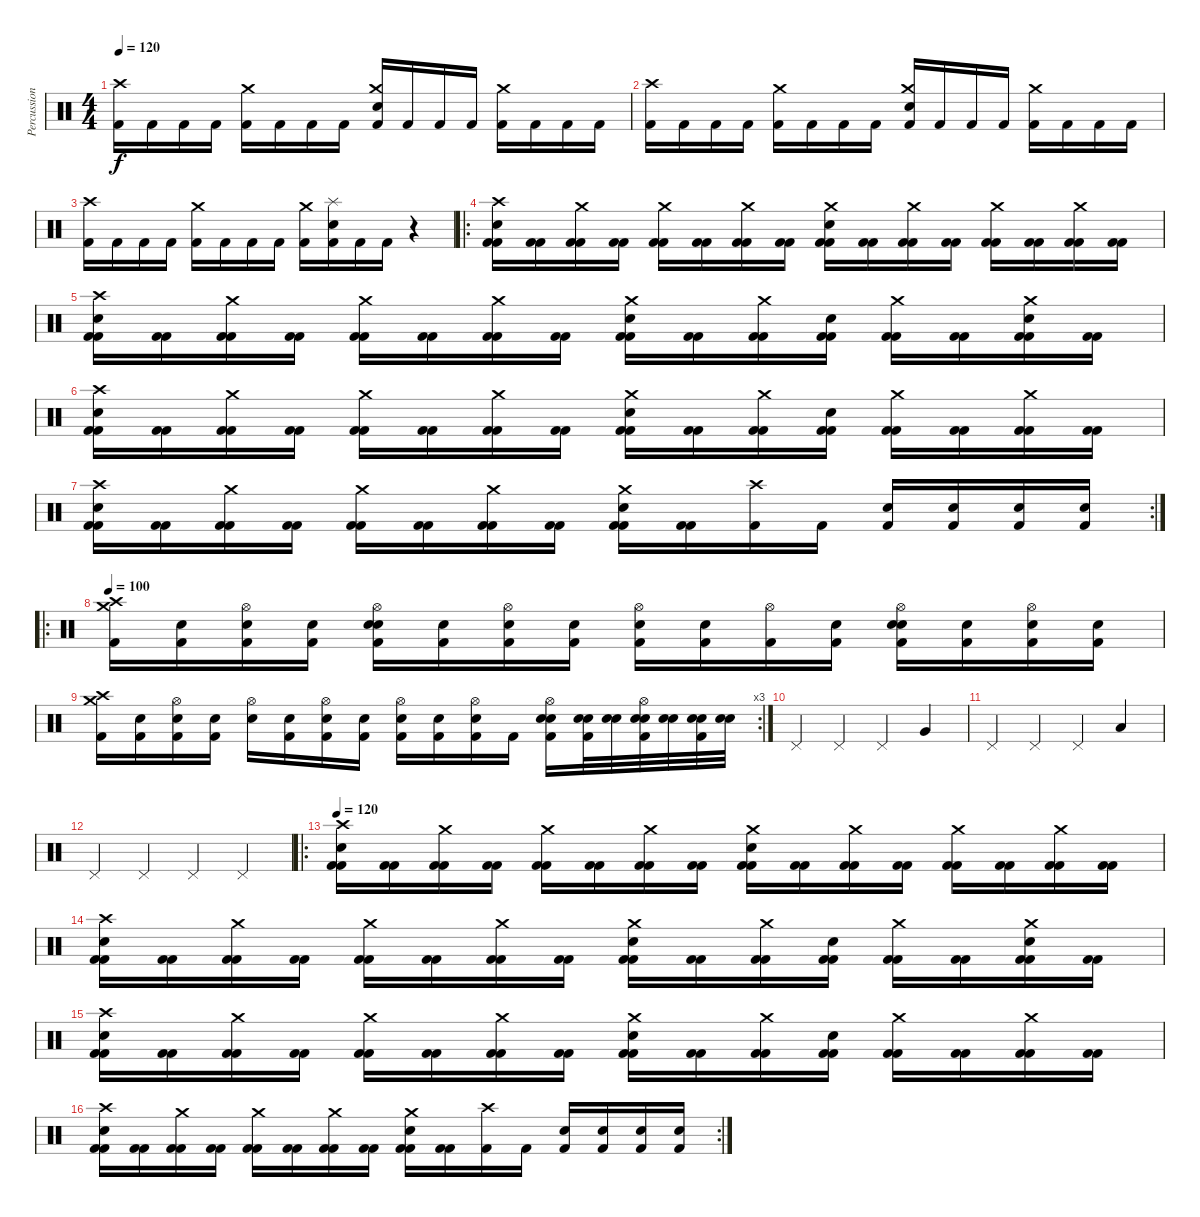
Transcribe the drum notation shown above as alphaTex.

\track ("Percussion" "Percussion") {instrument percussion}
\staff {score}
\articulation defaults
\ts (4 4)
\tempo 120
\clef neutral
\ks c
("Crash high (hit)" "Kick (hit) 2").16{dy f} "Kick (hit) 2".16 "Kick (hit) 2".16 "Kick (hit) 2".16 ("Crash medium (hit)" "Kick (hit) 2").16 "Kick (hit) 2".16 "Kick (hit) 2".16 "Kick (hit) 2".16 ("Crash medium (hit)" "Electric Snare (hit)" "Kick (hit) 2").16 "Kick (hit) 2".16 "Kick (hit) 2".16 "Kick (hit) 2".16 ("Crash medium (hit)" "Kick (hit) 2").16 "Kick (hit) 2".16 "Kick (hit) 2".16 "Kick (hit) 2".16 |
("Crash high (hit)" "Kick (hit) 2").16 "Kick (hit) 2".16 "Kick (hit) 2".16 "Kick (hit) 2".16 ("Crash medium (hit)" "Kick (hit) 2").16 "Kick (hit) 2".16 "Kick (hit) 2".16 "Kick (hit) 2".16 ("Crash medium (hit)" "Electric Snare (hit)" "Kick (hit) 2").16 "Kick (hit) 2".16 "Kick (hit) 2".16 "Kick (hit) 2".16 ("Crash medium (hit)" "Kick (hit) 2").16 "Kick (hit) 2".16 "Kick (hit) 2".16 "Kick (hit) 2".16 |
("Crash high (hit)" "Kick (hit) 2").16 "Kick (hit) 2".16 "Kick (hit) 2".16 "Kick (hit) 2".16 ("Crash medium (hit)" "Kick (hit) 2").16 "Kick (hit) 2".16 "Kick (hit) 2".16 "Kick (hit) 2".16 ("Crash medium (hit)" "Kick (hit) 2").16 ("Splash (hit)" "Electric Snare (hit)" "Kick (hit) 2").16 "Kick (hit) 2".16 "Kick (hit) 2".16 r.4 |
\ro
("Crash high (hit)" "Electric Snare (hit)" "Kick (hit) 2" "Kick (hit) 2").16 ("Kick (hit) 2" "Kick (hit) 2").16 ("Crash medium (hit)" "Kick (hit) 2" "Kick (hit) 2").16 ("Kick (hit) 2" "Kick (hit) 2").16 ("Crash medium (hit)" "Kick (hit) 2" "Kick (hit) 2").16 ("Kick (hit) 2" "Kick (hit) 2").16 ("Crash medium (hit)" "Kick (hit) 2" "Kick (hit) 2").16 ("Kick (hit) 2" "Kick (hit) 2").16 ("Crash medium (hit)" "Electric Snare (hit)" "Kick (hit) 2" "Kick (hit) 2").16 ("Kick (hit) 2" "Kick (hit) 2").16 ("Crash medium (hit)" "Kick (hit) 2" "Kick (hit) 2").16 ("Kick (hit) 2" "Kick (hit) 2").16 ("Crash medium (hit)" "Kick (hit) 2" "Kick (hit) 2").16 ("Kick (hit) 2" "Kick (hit) 2").16 ("Crash medium (hit)" "Kick (hit) 2" "Kick (hit) 2").16 ("Kick (hit) 2" "Kick (hit) 2").16 |
("Crash high (hit)" "Electric Snare (hit)" "Kick (hit) 2" "Kick (hit) 2").16 ("Kick (hit) 2" "Kick (hit) 2").16 ("Crash medium (hit)" "Kick (hit) 2" "Kick (hit) 2").16 ("Kick (hit) 2" "Kick (hit) 2").16 ("Crash medium (hit)" "Kick (hit) 2" "Kick (hit) 2").16 ("Kick (hit) 2" "Kick (hit) 2").16 ("Crash medium (hit)" "Kick (hit) 2" "Kick (hit) 2").16 ("Kick (hit) 2" "Kick (hit) 2").16 ("Crash medium (hit)" "Electric Snare (hit)" "Kick (hit) 2" "Kick (hit) 2").16 ("Kick (hit) 2" "Kick (hit) 2").16 ("Crash medium (hit)" "Kick (hit) 2" "Kick (hit) 2").16 ("Electric Snare (hit)" "Kick (hit) 2" "Kick (hit) 2").16 ("Crash medium (hit)" "Kick (hit) 2" "Kick (hit) 2").16 ("Kick (hit) 2" "Kick (hit) 2").16 ("Crash medium (hit)" "Electric Snare (hit)" "Kick (hit) 2" "Kick (hit) 2").16 ("Kick (hit) 2" "Kick (hit) 2").16 |
("Crash high (hit)" "Electric Snare (hit)" "Kick (hit) 2" "Kick (hit) 2").16 ("Kick (hit) 2" "Kick (hit) 2").16 ("Crash medium (hit)" "Kick (hit) 2" "Kick (hit) 2").16 ("Kick (hit) 2" "Kick (hit) 2").16 ("Crash medium (hit)" "Kick (hit) 2" "Kick (hit) 2").16 ("Kick (hit) 2" "Kick (hit) 2").16 ("Crash medium (hit)" "Kick (hit) 2" "Kick (hit) 2").16 ("Kick (hit) 2" "Kick (hit) 2").16 ("Crash medium (hit)" "Electric Snare (hit)" "Kick (hit) 2" "Kick (hit) 2").16 ("Kick (hit) 2" "Kick (hit) 2").16 ("Crash medium (hit)" "Kick (hit) 2" "Kick (hit) 2").16 ("Electric Snare (hit)" "Kick (hit) 2" "Kick (hit) 2").16 ("Crash medium (hit)" "Kick (hit) 2" "Kick (hit) 2").16 ("Kick (hit) 2" "Kick (hit) 2").16 ("Crash medium (hit)" "Kick (hit) 2" "Kick (hit) 2").16 ("Kick (hit) 2" "Kick (hit) 2").16 |
\rc 2
("Crash high (hit)" "Electric Snare (hit)" "Kick (hit) 2" "Kick (hit) 2").16 ("Kick (hit) 2" "Kick (hit) 2").16 ("Crash medium (hit)" "Kick (hit) 2" "Kick (hit) 2").16 ("Kick (hit) 2" "Kick (hit) 2").16 ("Crash medium (hit)" "Kick (hit) 2" "Kick (hit) 2").16 ("Kick (hit) 2" "Kick (hit) 2").16 ("Crash medium (hit)" "Kick (hit) 2" "Kick (hit) 2").16 ("Kick (hit) 2" "Kick (hit) 2").16 ("Crash medium (hit)" "Electric Snare (hit)" "Kick (hit) 2" "Kick (hit) 2").16 ("Kick (hit) 2" "Kick (hit) 2").16 ("Crash high (hit)" "Kick (hit) 2").16 "Kick (hit) 2".16 ("Electric Snare (hit)" "Kick (hit) 2").16 ("Electric Snare (hit)" "Kick (hit) 2").16 ("Electric Snare (hit)" "Kick (hit) 2").16 ("Electric Snare (hit)" "Kick (hit) 2").16 |
\ro
\tempo 100
("Crash medium (hit)" "Crash high (hit)" "Kick (hit) 2").16 ("Snare (hit)" "Kick (hit) 2").16 ("Snare (hit)" "Hi-Hat (open)" "Kick (hit) 2").16 ("Snare (hit)" "Kick (hit) 2").16 ("Snare (hit)" "Hi-Hat (open)" "Electric Snare (hit)" "Kick (hit) 2").16 ("Snare (hit)" "Kick (hit) 2").16 ("Snare (hit)" "Hi-Hat (open)" "Kick (hit) 2").16 ("Snare (hit)" "Kick (hit) 2").16 ("Snare (hit)" "Hi-Hat (open)" "Kick (hit) 2").16 ("Snare (hit)" "Kick (hit) 2").16 ("Hi-Hat (open)" "Kick (hit) 2").16 ("Snare (hit)" "Kick (hit) 2").16 ("Snare (hit)" "Hi-Hat (open)" "Electric Snare (hit)" "Kick (hit) 2").16 ("Snare (hit)" "Kick (hit) 2").16 ("Snare (hit)" "Hi-Hat (open)" "Kick (hit) 2").16 ("Snare (hit)" "Kick (hit) 2").16 |
\rc 3
("Crash medium (hit)" "Crash high (hit)" "Kick (hit) 2").16 ("Snare (hit)" "Kick (hit) 2").16 ("Snare (hit)" "Hi-Hat (open)" "Kick (hit) 2").16 ("Snare (hit)" "Kick (hit) 2").16 ("Hi-Hat (open)" "Electric Snare (hit)").16 ("Snare (hit)" "Kick (hit) 2").16 ("Snare (hit)" "Hi-Hat (open)" "Kick (hit) 2").16 ("Snare (hit)" "Kick (hit) 2").16 ("Snare (hit)" "Hi-Hat (open)" "Kick (hit) 2").16 ("Snare (hit)" "Kick (hit) 2").16 ("Snare (hit)" "Hi-Hat (open)" "Kick (hit) 2").16 "Kick (hit) 2".16 ("Snare (hit)" "Hi-Hat (open)" "Electric Snare (hit)" "Kick (hit) 2").16 ("Snare (hit)" "Electric Snare (hit)" "Kick (hit) 2").32 ("Snare (hit)" "Electric Snare (hit)").32 ("Snare (hit)" "Hi-Hat (open)" "Electric Snare (hit)" "Kick (hit) 2").32 ("Snare (hit)" "Electric Snare (hit)").32 ("Snare (hit)" "Electric Snare (hit)" "Kick (hit) 2").32 ("Snare (hit)" "Electric Snare (hit)").32 |
"Pedal Hi-Hat (hit)".4 "Pedal Hi-Hat (hit)".4 "Pedal Hi-Hat (hit)".4 "Very Low Tom (hit)".4 |
"Pedal Hi-Hat (hit)".4 "Pedal Hi-Hat (hit)".4 "Pedal Hi-Hat (hit)".4 "Low Tom (hit)".4 |
"Pedal Hi-Hat (hit)".4 "Pedal Hi-Hat (hit)".4 "Pedal Hi-Hat (hit)".4 "Pedal Hi-Hat (hit)".4 |
\ro
\tempo 120
("Crash high (hit)" "Electric Snare (hit)" "Kick (hit) 2" "Kick (hit) 2").16 ("Kick (hit) 2" "Kick (hit) 2").16 ("Crash medium (hit)" "Kick (hit) 2" "Kick (hit) 2").16 ("Kick (hit) 2" "Kick (hit) 2").16 ("Crash medium (hit)" "Kick (hit) 2" "Kick (hit) 2").16 ("Kick (hit) 2" "Kick (hit) 2").16 ("Crash medium (hit)" "Kick (hit) 2" "Kick (hit) 2").16 ("Kick (hit) 2" "Kick (hit) 2").16 ("Crash medium (hit)" "Electric Snare (hit)" "Kick (hit) 2" "Kick (hit) 2").16 ("Kick (hit) 2" "Kick (hit) 2").16 ("Crash medium (hit)" "Kick (hit) 2" "Kick (hit) 2").16 ("Kick (hit) 2" "Kick (hit) 2").16 ("Crash medium (hit)" "Kick (hit) 2" "Kick (hit) 2").16 ("Kick (hit) 2" "Kick (hit) 2").16 ("Crash medium (hit)" "Kick (hit) 2" "Kick (hit) 2").16 ("Kick (hit) 2" "Kick (hit) 2").16 |
("Crash high (hit)" "Electric Snare (hit)" "Kick (hit) 2" "Kick (hit) 2").16 ("Kick (hit) 2" "Kick (hit) 2").16 ("Crash medium (hit)" "Kick (hit) 2" "Kick (hit) 2").16 ("Kick (hit) 2" "Kick (hit) 2").16 ("Crash medium (hit)" "Kick (hit) 2" "Kick (hit) 2").16 ("Kick (hit) 2" "Kick (hit) 2").16 ("Crash medium (hit)" "Kick (hit) 2" "Kick (hit) 2").16 ("Kick (hit) 2" "Kick (hit) 2").16 ("Crash medium (hit)" "Electric Snare (hit)" "Kick (hit) 2" "Kick (hit) 2").16 ("Kick (hit) 2" "Kick (hit) 2").16 ("Crash medium (hit)" "Kick (hit) 2" "Kick (hit) 2").16 ("Electric Snare (hit)" "Kick (hit) 2" "Kick (hit) 2").16 ("Crash medium (hit)" "Kick (hit) 2" "Kick (hit) 2").16 ("Kick (hit) 2" "Kick (hit) 2").16 ("Crash medium (hit)" "Electric Snare (hit)" "Kick (hit) 2" "Kick (hit) 2").16 ("Kick (hit) 2" "Kick (hit) 2").16 |
("Crash high (hit)" "Electric Snare (hit)" "Kick (hit) 2" "Kick (hit) 2").16 ("Kick (hit) 2" "Kick (hit) 2").16 ("Crash medium (hit)" "Kick (hit) 2" "Kick (hit) 2").16 ("Kick (hit) 2" "Kick (hit) 2").16 ("Crash medium (hit)" "Kick (hit) 2" "Kick (hit) 2").16 ("Kick (hit) 2" "Kick (hit) 2").16 ("Crash medium (hit)" "Kick (hit) 2" "Kick (hit) 2").16 ("Kick (hit) 2" "Kick (hit) 2").16 ("Crash medium (hit)" "Electric Snare (hit)" "Kick (hit) 2" "Kick (hit) 2").16 ("Kick (hit) 2" "Kick (hit) 2").16 ("Crash medium (hit)" "Kick (hit) 2" "Kick (hit) 2").16 ("Electric Snare (hit)" "Kick (hit) 2" "Kick (hit) 2").16 ("Crash medium (hit)" "Kick (hit) 2" "Kick (hit) 2").16 ("Kick (hit) 2" "Kick (hit) 2").16 ("Crash medium (hit)" "Kick (hit) 2" "Kick (hit) 2").16 ("Kick (hit) 2" "Kick (hit) 2").16 |
\rc 2
("Crash high (hit)" "Electric Snare (hit)" "Kick (hit) 2" "Kick (hit) 2").16 ("Kick (hit) 2" "Kick (hit) 2").16 ("Crash medium (hit)" "Kick (hit) 2" "Kick (hit) 2").16 ("Kick (hit) 2" "Kick (hit) 2").16 ("Crash medium (hit)" "Kick (hit) 2" "Kick (hit) 2").16 ("Kick (hit) 2" "Kick (hit) 2").16 ("Crash medium (hit)" "Kick (hit) 2" "Kick (hit) 2").16 ("Kick (hit) 2" "Kick (hit) 2").16 ("Crash medium (hit)" "Electric Snare (hit)" "Kick (hit) 2" "Kick (hit) 2").16 ("Kick (hit) 2" "Kick (hit) 2").16 ("Crash high (hit)" "Kick (hit) 2").16 "Kick (hit) 2".16 ("Electric Snare (hit)" "Kick (hit) 2").16 ("Electric Snare (hit)" "Kick (hit) 2").16 ("Electric Snare (hit)" "Kick (hit) 2").16 ("Electric Snare (hit)" "Kick (hit) 2").16
